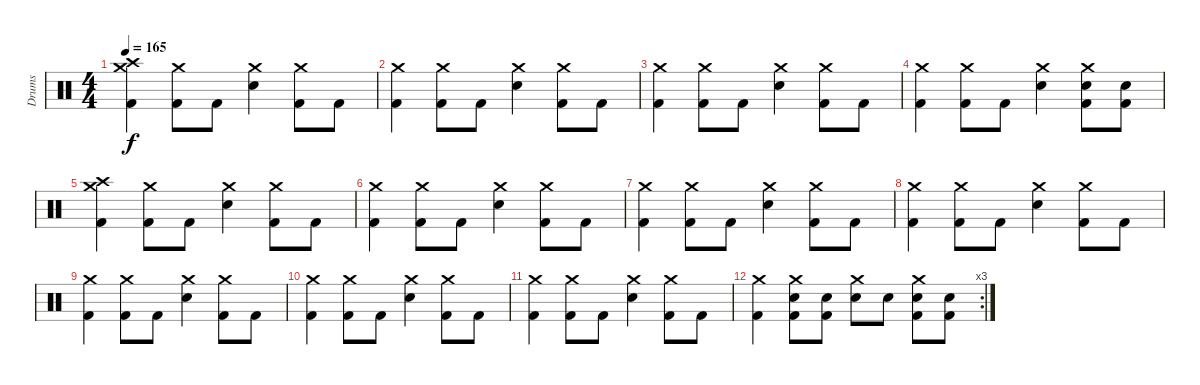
\track ("Drums" "Drums") {instrument percussion}
\staff {score}
\articulation defaults
\ts (4 4)
\tempo 165
\clef neutral
\ks c
("Crash high (hit)" "Crash medium (hit)" "Kick (hit) 2").4{dy f} ("Crash medium (hit)" "Kick (hit) 2").8 "Kick (hit) 2".8 ("Crash medium (hit)" "Snare (hit) 2").4 ("Crash medium (hit)" "Kick (hit) 2").8 "Kick (hit) 2".8 |
("Crash medium (hit)" "Kick (hit) 2").4 ("Crash medium (hit)" "Kick (hit) 2").8 "Kick (hit) 2".8 ("Crash medium (hit)" "Snare (hit) 2").4 ("Crash medium (hit)" "Kick (hit) 2").8 "Kick (hit) 2".8 |
("Crash medium (hit)" "Kick (hit) 2").4 ("Crash medium (hit)" "Kick (hit) 2").8 "Kick (hit) 2".8 ("Crash medium (hit)" "Snare (hit) 2").4 ("Crash medium (hit)" "Kick (hit) 2").8 "Kick (hit) 2".8 |
("Crash medium (hit)" "Kick (hit) 2").4 ("Crash medium (hit)" "Kick (hit) 2").8 "Kick (hit) 2".8 ("Crash medium (hit)" "Snare (hit) 2").4 ("Crash medium (hit)" "Snare (hit) 2" "Kick (hit) 2").8 ("Snare (hit) 2" "Kick (hit) 2").8 |
("Crash high (hit)" "Crash medium (hit)" "Kick (hit) 2").4 ("Crash medium (hit)" "Kick (hit) 2").8 "Kick (hit) 2".8 ("Crash medium (hit)" "Snare (hit) 2").4 ("Crash medium (hit)" "Kick (hit) 2").8 "Kick (hit) 2".8 |
("Crash medium (hit)" "Kick (hit) 2").4 ("Crash medium (hit)" "Kick (hit) 2").8 "Kick (hit) 2".8 ("Crash medium (hit)" "Snare (hit) 2").4 ("Crash medium (hit)" "Kick (hit) 2").8 "Kick (hit) 2".8 |
("Crash medium (hit)" "Kick (hit) 2").4 ("Crash medium (hit)" "Kick (hit) 2").8 "Kick (hit) 2".8 ("Crash medium (hit)" "Snare (hit) 2").4 ("Crash medium (hit)" "Kick (hit) 2").8 "Kick (hit) 2".8 |
("Crash medium (hit)" "Kick (hit) 2").4 ("Crash medium (hit)" "Kick (hit) 2").8 "Kick (hit) 2".8 ("Crash medium (hit)" "Snare (hit) 2").4 ("Crash medium (hit)" "Kick (hit) 2").8 "Kick (hit) 2".8 |
("Crash medium (hit)" "Kick (hit) 2").4 ("Crash medium (hit)" "Kick (hit) 2").8 "Kick (hit) 2".8 ("Crash medium (hit)" "Snare (hit) 2").4 ("Crash medium (hit)" "Kick (hit) 2").8 "Kick (hit) 2".8 |
("Crash medium (hit)" "Kick (hit) 2").4 ("Crash medium (hit)" "Kick (hit) 2").8 "Kick (hit) 2".8 ("Crash medium (hit)" "Snare (hit) 2").4 ("Crash medium (hit)" "Kick (hit) 2").8 "Kick (hit) 2".8 |
("Crash medium (hit)" "Kick (hit) 2").4 ("Crash medium (hit)" "Kick (hit) 2").8 "Kick (hit) 2".8 ("Crash medium (hit)" "Snare (hit) 2").4 ("Crash medium (hit)" "Kick (hit) 2").8 "Kick (hit) 2".8 |
\rc 3
("Crash medium (hit)" "Kick (hit) 2").4 ("Crash medium (hit)" "Snare (hit) 2" "Kick (hit) 2").8 ("Snare (hit) 2" "Kick (hit) 2").8 ("Crash medium (hit)" "Snare (hit) 2").8 "Snare (hit) 2".8 ("Crash medium (hit)" "Snare (hit) 2" "Kick (hit) 2").8 ("Snare (hit) 2" "Kick (hit) 2").8
